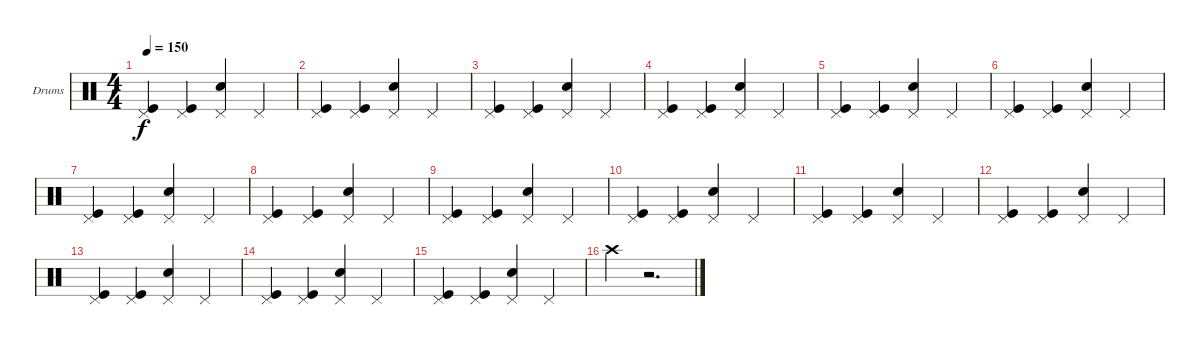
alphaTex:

\bracketExtendMode groupsimilarinstruments
\firstSystemTrackNameOrientation horizontal
\otherSystemsTrackNameOrientation horizontal
\track ("Drumkit" "Drums") {instrument percussion}
\staff {score}
\articulation defaults
\ts (4 4)
\tempo 150
\clef neutral
\ks c
("Pedal Hi-Hat (hit)" "Kick (hit)").4{dy f} ("Pedal Hi-Hat (hit)" "Kick (hit)").4 ("Pedal Hi-Hat (hit)" "Snare (hit) 2").4 "Pedal Hi-Hat (hit)".4 |
("Pedal Hi-Hat (hit)" "Kick (hit)").4 ("Pedal Hi-Hat (hit)" "Kick (hit)").4 ("Pedal Hi-Hat (hit)" "Snare (hit) 2").4 "Pedal Hi-Hat (hit)".4 |
("Pedal Hi-Hat (hit)" "Kick (hit)").4 ("Pedal Hi-Hat (hit)" "Kick (hit)").4 ("Pedal Hi-Hat (hit)" "Snare (hit) 2").4 "Pedal Hi-Hat (hit)".4 |
("Pedal Hi-Hat (hit)" "Kick (hit)").4 ("Pedal Hi-Hat (hit)" "Kick (hit)").4 ("Pedal Hi-Hat (hit)" "Snare (hit) 2").4 "Pedal Hi-Hat (hit)".4 |
("Pedal Hi-Hat (hit)" "Kick (hit)").4 ("Pedal Hi-Hat (hit)" "Kick (hit)").4 ("Pedal Hi-Hat (hit)" "Snare (hit) 2").4 "Pedal Hi-Hat (hit)".4 |
("Pedal Hi-Hat (hit)" "Kick (hit)").4 ("Pedal Hi-Hat (hit)" "Kick (hit)").4 ("Pedal Hi-Hat (hit)" "Snare (hit) 2").4 "Pedal Hi-Hat (hit)".4 |
("Pedal Hi-Hat (hit)" "Kick (hit)").4 ("Pedal Hi-Hat (hit)" "Kick (hit)").4 ("Pedal Hi-Hat (hit)" "Snare (hit) 2").4 "Pedal Hi-Hat (hit)".4 |
("Pedal Hi-Hat (hit)" "Kick (hit)").4 ("Pedal Hi-Hat (hit)" "Kick (hit)").4 ("Pedal Hi-Hat (hit)" "Snare (hit) 2").4 "Pedal Hi-Hat (hit)".4 |
("Pedal Hi-Hat (hit)" "Kick (hit)").4 ("Pedal Hi-Hat (hit)" "Kick (hit)").4 ("Pedal Hi-Hat (hit)" "Snare (hit) 2").4 "Pedal Hi-Hat (hit)".4 |
("Pedal Hi-Hat (hit)" "Kick (hit)").4 ("Pedal Hi-Hat (hit)" "Kick (hit)").4 ("Pedal Hi-Hat (hit)" "Snare (hit) 2").4 "Pedal Hi-Hat (hit)".4 |
("Pedal Hi-Hat (hit)" "Kick (hit)").4 ("Pedal Hi-Hat (hit)" "Kick (hit)").4 ("Pedal Hi-Hat (hit)" "Snare (hit) 2").4 "Pedal Hi-Hat (hit)".4 |
("Pedal Hi-Hat (hit)" "Kick (hit)").4 ("Pedal Hi-Hat (hit)" "Kick (hit)").4 ("Pedal Hi-Hat (hit)" "Snare (hit) 2").4 "Pedal Hi-Hat (hit)".4 |
("Pedal Hi-Hat (hit)" "Kick (hit)").4 ("Pedal Hi-Hat (hit)" "Kick (hit)").4 ("Pedal Hi-Hat (hit)" "Snare (hit) 2").4 "Pedal Hi-Hat (hit)".4 |
("Pedal Hi-Hat (hit)" "Kick (hit)").4 ("Pedal Hi-Hat (hit)" "Kick (hit)").4 ("Pedal Hi-Hat (hit)" "Snare (hit) 2").4 "Pedal Hi-Hat (hit)".4 |
("Pedal Hi-Hat (hit)" "Kick (hit)").4 ("Pedal Hi-Hat (hit)" "Kick (hit)").4 ("Pedal Hi-Hat (hit)" "Snare (hit) 2").4 "Pedal Hi-Hat (hit)".4 |
"Crash high (hit)".4 r.2{d}
